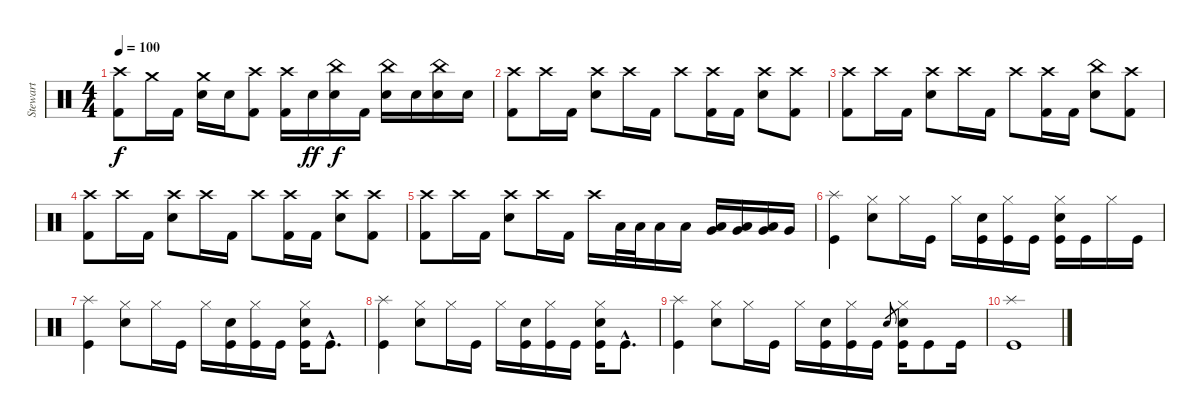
\track ("Stewart" "Stewart") {instrument percussion}
\staff {score}
\articulation defaults
\ts (4 4)
\tempo 100
\clef neutral
\ks c
("Crash high (hit)" "Kick (hit) 2").8{dy f} "Crash medium (hit)".16 "Kick (hit) 2".16 ("Crash medium (hit)" "Electric Snare (hit)").16 "Electric Snare (hit)".16 ("Crash high (hit)" "Kick (hit) 2").8 ("Crash high (hit)" "Kick (hit) 2").16 "Electric Snare (hit)".16{dy ff} ("China (hit)" "Electric Snare (hit)").16{dy f} "Kick (hit) 2".16 ("China (hit)" "Electric Snare (hit)").16 "Electric Snare (hit)".16 ("China (hit)" "Electric Snare (hit)").16 "Electric Snare (hit)".16 |
("Crash high (hit)" "Kick (hit) 2").8 "Crash high (hit)".16 "Kick (hit) 2".16 ("Crash high (hit)" "Electric Snare (hit)").8 "Crash high (hit)".16 "Kick (hit) 2".16 "Crash high (hit)".8 ("Crash high (hit)" "Kick (hit) 2").16 "Kick (hit) 2".16 ("Crash high (hit)" "Electric Snare (hit)").8 ("Crash high (hit)" "Kick (hit) 2").8 |
("Crash high (hit)" "Kick (hit) 2").8 "Crash high (hit)".16 "Kick (hit) 2".16 ("Crash high (hit)" "Electric Snare (hit)").8 "Crash high (hit)".16 "Kick (hit) 2".16 "Crash high (hit)".8 ("Crash high (hit)" "Kick (hit) 2").16 "Kick (hit) 2".16 ("China (hit)" "Electric Snare (hit)").8 ("Crash high (hit)" "Kick (hit) 2").8 |
("Crash high (hit)" "Kick (hit) 2").8 "Crash high (hit)".16 "Kick (hit) 2".16 ("Crash high (hit)" "Electric Snare (hit)").8 "Crash high (hit)".16 "Kick (hit) 2".16 "Crash high (hit)".8 ("Crash high (hit)" "Kick (hit) 2").16 "Kick (hit) 2".16 ("Crash high (hit)" "Electric Snare (hit)").8 ("Crash high (hit)" "Kick (hit) 2").8 |
("Crash high (hit)" "Kick (hit) 2").8 "Crash high (hit)".16 "Kick (hit) 2".16 ("Crash high (hit)" "Electric Snare (hit)").8 "Crash high (hit)".16 "Kick (hit) 2".16 "Crash high (hit)".16 "Low Tom (hit)".32 "Low Tom (hit)".32 "Low Tom (hit)".16 "Low Tom (hit)".16 ("Low Tom (hit)" "Very Low Tom (hit)").16 ("Low Tom (hit)" "Very Low Tom (hit)").16 ("Low Tom (hit)" "Very Low Tom (hit)").16 "Very Low Tom (hit)".16 |
("Splash (hit)" "Kick (hit)").4 ("Hi-Hat (closed)" "Electric Snare (hit)").8 "Hi-Hat (closed)".16 "Kick (hit)".16 "Hi-Hat (closed)".16 ("Electric Snare (hit)" "Kick (hit)").16 ("Hi-Hat (closed)" "Kick (hit)").16 "Kick (hit)".16 ("Hi-Hat (closed)" "Electric Snare (hit)" "Kick (hit)").16 "Kick (hit)".16 "Hi-Hat (closed)".16 "Kick (hit)".16 |
("Splash (hit)" "Kick (hit)").4 ("Hi-Hat (closed)" "Electric Snare (hit)").8 "Hi-Hat (closed)".16 "Kick (hit)".16 "Hi-Hat (closed)".16 ("Electric Snare (hit)" "Kick (hit)").16 ("Hi-Hat (closed)" "Kick (hit)").16 "Kick (hit)".16 ("Hi-Hat (closed)" "Electric Snare (hit)" "Kick (hit)").16 "Kick (hit)"{hac}.8{d} |
("Splash (hit)" "Kick (hit)").4 ("Hi-Hat (closed)" "Electric Snare (hit)").8 "Hi-Hat (closed)".16 "Kick (hit)".16 "Hi-Hat (closed)".16 ("Electric Snare (hit)" "Kick (hit)").16 ("Hi-Hat (closed)" "Kick (hit)").16 "Kick (hit)".16 ("Hi-Hat (closed)" "Electric Snare (hit)" "Kick (hit)").16 "Kick (hit)"{hac}.8{d} |
("Splash (hit)" "Kick (hit)").4 ("Hi-Hat (closed)" "Electric Snare (hit)").8 "Hi-Hat (closed)".16 "Kick (hit)".16 "Hi-Hat (closed)".16 ("Electric Snare (hit)" "Kick (hit)").16 ("Hi-Hat (closed)" "Kick (hit)").16 "Kick (hit)".16 "Electric Snare (hit)".8{gr} ("Hi-Hat (closed)" "Electric Snare (hit)" "Kick (hit)").16 "Kick (hit)".8 "Kick (hit)".16 |
("Splash (hit)" "Kick (hit)").1
